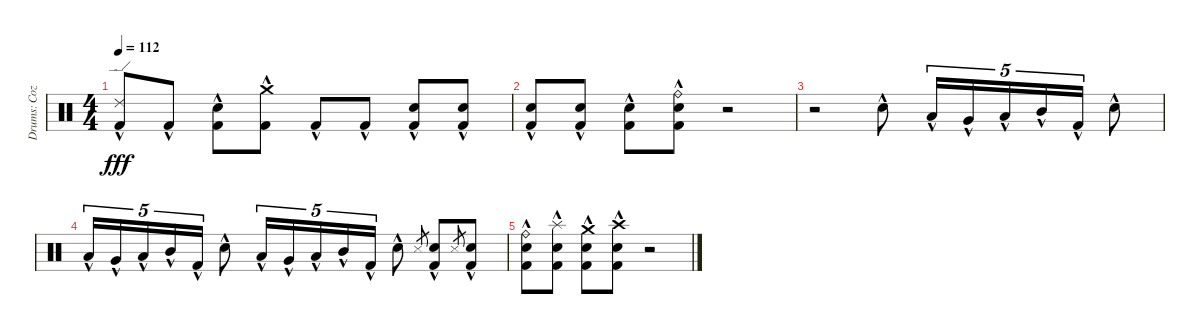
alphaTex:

\track ("Drums: Cozy" "Drums: Coz") {instrument percussion}
\staff {score}
\articulation defaults
\ts (4 4)
\tempo 112
\clef neutral
\ks c
("Ride (edge) 2"{hac} "Kick (hit) 2"{hac}).8{dy fff} "Kick (hit) 2"{hac}.8 ("Snare (hit) 2"{hac} "Kick (hit) 2"{hac}).8 ("Crash medium (hit)"{hac} "Kick (hit) 2"{hac}).8 "Kick (hit) 2"{hac}.8 "Kick (hit) 2"{hac}.8 ("Snare (hit) 2"{hac} "Kick (hit) 2"{hac}).8 ("Snare (hit) 2"{hac} "Kick (hit) 2"{hac}).8 |
("Snare (hit) 2"{hac} "Kick (hit) 2"{hac}).8 ("Snare (hit) 2"{hac} "Kick (hit) 2"{hac}).8 ("Snare (hit) 2"{hac} "Kick (hit) 2"{hac}).8 ("Ride (bell)"{hac} "Snare (hit) 2"{hac} "Kick (hit) 2"{hac}).8 r.2 |
r.2 "Snare (hit) 2"{hac}.8 "Low Tom (hit)"{hac}.16{tu (5 4)} "Very Low Tom (hit)"{hac}.16{tu (5 4)} "Low Tom (hit)"{hac}.16{tu (5 4)} "Mid Tom (hit)"{hac}.16{tu (5 4)} "Kick (hit) 2"{hac}.16{tu (5 4)} "Snare (hit) 2"{hac}.8 |
"Low Tom (hit)"{hac}.16{tu (5 4)} "Very Low Tom (hit)"{hac}.16{tu (5 4)} "Low Tom (hit)"{hac}.16{tu (5 4)} "Mid Tom (hit)"{hac}.16{tu (5 4)} "Kick (hit) 2"{hac}.16{tu (5 4)} "Snare (hit) 2"{hac}.8 "Low Tom (hit)"{hac}.16{tu (5 4)} "Very Low Tom (hit)"{hac}.16{tu (5 4)} "Low Tom (hit)"{hac}.16{tu (5 4)} "Mid Tom (hit)"{hac}.16{tu (5 4)} "Kick (hit) 2"{hac}.16{tu (5 4)} "Snare (hit) 2"{hac}.8 "Snare (side stick) 3".8{gr} ("Snare (hit) 2"{hac} "Kick (hit) 2"{hac}).8 "Snare (side stick) 3".8{gr} ("Snare (hit) 2"{hac} "Kick (hit) 2"{hac}).8 |
("Ride (bell)"{hac} "Electric Snare (hit)"{hac} "Kick (hit) 2"{hac}).8 ("Splash (hit)"{hac} "Electric Snare (hit)"{hac} "Kick (hit) 2"{hac}).8 ("Crash medium (hit)"{hac} "Electric Snare (hit)"{hac} "Kick (hit) 2"{hac}).8 ("Crash high (hit)"{hac} "Electric Snare (hit)"{hac} "Kick (hit) 2"{hac}).8 r.2
